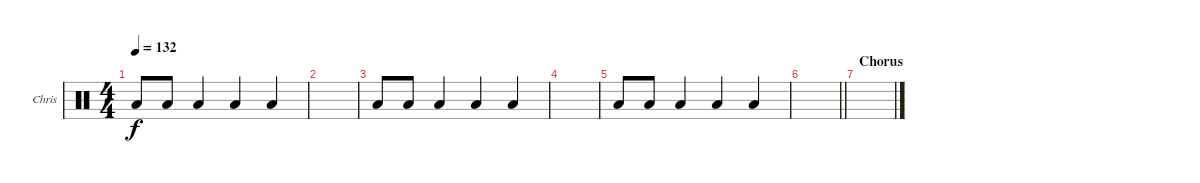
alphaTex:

\bracketExtendMode groupsimilarinstruments
\firstSystemTrackNameOrientation horizontal
\otherSystemsTrackNameOrientation horizontal
\track ("Chris Fehn" "Chris") {instrument percussion}
\staff {score}
\articulation defaults
\ts (4 4)
\tempo 132
\clef neutral
\ks c "Low Tom (hit)".8{dy f} "Low Tom (hit)".8 "Low Tom (hit)".4 "Low Tom (hit)".4 "Low Tom (hit)".4
|
|
"Low Tom (hit)".8 "Low Tom (hit)".8 "Low Tom (hit)".4 "Low Tom (hit)".4 "Low Tom (hit)".4 |
|
"Low Tom (hit)".8 "Low Tom (hit)".8 "Low Tom (hit)".4 "Low Tom (hit)".4 "Low Tom (hit)".4 |
\barLineRight lightlight
|
\section ("" "Chorus")
